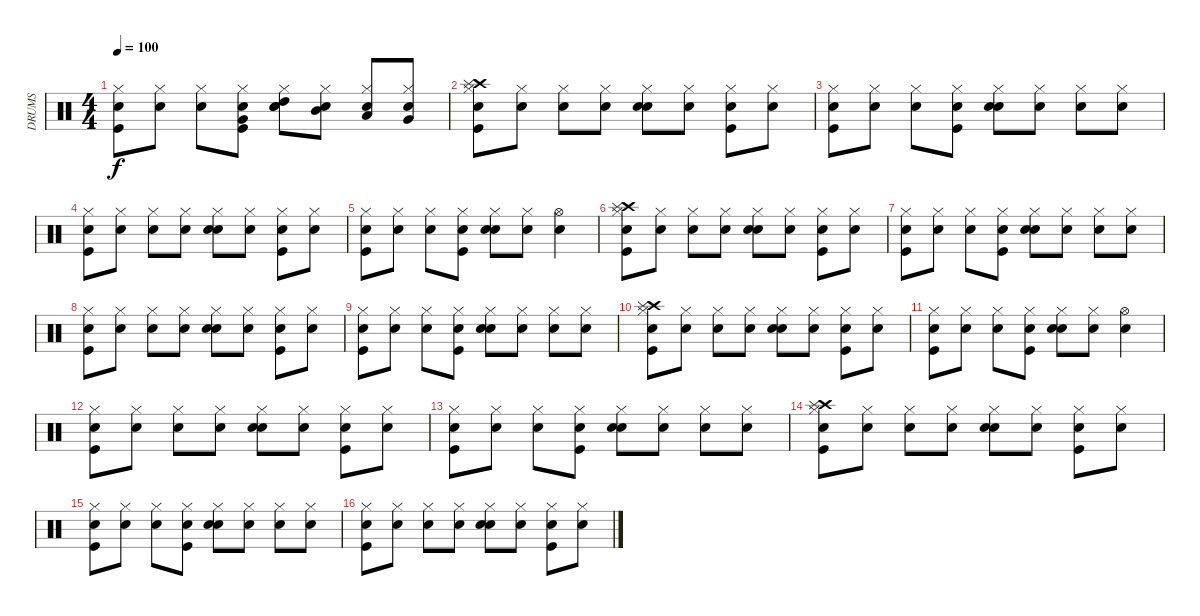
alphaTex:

\track ("DRUMS" "DRUMS") {instrument percussion}
\staff {score}
\articulation defaults
\ts (4 4)
\tempo 100
\clef neutral
\ks c
("Snare (hit)" "Kick (hit)" "Hi-Hat (closed)").8{dy f} ("Snare (hit)" "Hi-Hat (closed)").8 ("Snare (hit)" "Hi-Hat (closed)").8 ("Snare (hit)" "Very Low Tom (hit)" "Kick (hit)" "Hi-Hat (closed)").8 ("Snare (hit)" "High Tom (hit)" "Snare (hit) 2" "Hi-Hat (closed)").8 ("Snare (hit)" "Mid Tom (hit)" "Hi-Hat (closed)").8 ("Snare (hit)" "Low Tom (hit)" "Hi-Hat (closed)").8 ("Snare (hit)" "Very Low Tom (hit)" "Hi-Hat (closed)").8 |
("Snare (hit)" "Kick (hit)" "Crash high (hit)" "Splash (hit)" "Hi-Hat (closed)").8 ("Snare (hit)" "Hi-Hat (closed)").8 ("Snare (hit)" "Hi-Hat (closed)").8 ("Snare (hit)" "Hi-Hat (closed)").8 ("Snare (hit)" "Snare (hit) 2" "Hi-Hat (closed)").8 ("Snare (hit)" "Hi-Hat (closed)").8 ("Snare (hit)" "Kick (hit)" "Hi-Hat (closed)").8 ("Snare (hit)" "Hi-Hat (closed)").8 |
("Snare (hit)" "Kick (hit)" "Hi-Hat (closed)").8 ("Snare (hit)" "Hi-Hat (closed)").8 ("Snare (hit)" "Hi-Hat (closed)").8 ("Snare (hit)" "Kick (hit)" "Hi-Hat (closed)").8 ("Snare (hit)" "Snare (hit) 2" "Hi-Hat (closed)").8 ("Snare (hit)" "Hi-Hat (closed)").8 ("Snare (hit)" "Hi-Hat (closed)").8 ("Snare (hit)" "Hi-Hat (closed)").8 |
("Snare (hit)" "Kick (hit)" "Hi-Hat (closed)").8 ("Snare (hit)" "Hi-Hat (closed)").8 ("Snare (hit)" "Hi-Hat (closed)").8 ("Snare (hit)" "Hi-Hat (closed)").8 ("Snare (hit)" "Snare (hit) 2" "Hi-Hat (closed)").8 ("Snare (hit)" "Hi-Hat (closed)").8 ("Snare (hit)" "Kick (hit)" "Hi-Hat (closed)").8 ("Snare (hit)" "Hi-Hat (closed)").8 |
("Snare (hit)" "Kick (hit)" "Hi-Hat (closed)").8 ("Snare (hit)" "Hi-Hat (closed)").8 ("Snare (hit)" "Hi-Hat (closed)").8 ("Snare (hit)" "Kick (hit)" "Hi-Hat (closed)").8 ("Snare (hit)" "Snare (hit) 2" "Hi-Hat (closed)").8 ("Snare (hit)" "Hi-Hat (closed)").8 ("Snare (hit)" "Hi-Hat (open)").4 |
("Snare (hit)" "Kick (hit)" "Crash high (hit)" "Splash (hit)" "Hi-Hat (closed)").8 ("Snare (hit)" "Hi-Hat (closed)").8 ("Snare (hit)" "Hi-Hat (closed)").8 ("Snare (hit)" "Hi-Hat (closed)").8 ("Snare (hit)" "Snare (hit) 2" "Hi-Hat (closed)").8 ("Snare (hit)" "Hi-Hat (closed)").8 ("Snare (hit)" "Kick (hit)" "Hi-Hat (closed)").8 ("Snare (hit)" "Hi-Hat (closed)").8 |
("Snare (hit)" "Kick (hit)" "Hi-Hat (closed)").8 ("Snare (hit)" "Hi-Hat (closed)").8 ("Snare (hit)" "Hi-Hat (closed)").8 ("Snare (hit)" "Kick (hit)" "Hi-Hat (closed)").8 ("Snare (hit)" "Snare (hit) 2" "Hi-Hat (closed)").8 ("Snare (hit)" "Hi-Hat (closed)").8 ("Snare (hit)" "Hi-Hat (closed)").8 ("Snare (hit)" "Hi-Hat (closed)").8 |
("Snare (hit)" "Kick (hit)" "Hi-Hat (closed)").8 ("Snare (hit)" "Hi-Hat (closed)").8 ("Snare (hit)" "Hi-Hat (closed)").8 ("Snare (hit)" "Hi-Hat (closed)").8 ("Snare (hit)" "Snare (hit) 2" "Hi-Hat (closed)").8 ("Snare (hit)" "Hi-Hat (closed)").8 ("Snare (hit)" "Kick (hit)" "Hi-Hat (closed)").8 ("Snare (hit)" "Hi-Hat (closed)").8 |
("Snare (hit)" "Kick (hit)" "Hi-Hat (closed)").8 ("Snare (hit)" "Hi-Hat (closed)").8 ("Snare (hit)" "Hi-Hat (closed)").8 ("Snare (hit)" "Kick (hit)" "Hi-Hat (closed)").8 ("Snare (hit)" "Snare (hit) 2" "Hi-Hat (closed)").8 ("Snare (hit)" "Hi-Hat (closed)").8 ("Snare (hit)" "Hi-Hat (closed)").8 ("Snare (hit)" "Hi-Hat (closed)").8 |
("Snare (hit)" "Kick (hit)" "Crash high (hit)" "Splash (hit)" "Hi-Hat (closed)").8 ("Snare (hit)" "Hi-Hat (closed)").8 ("Snare (hit)" "Hi-Hat (closed)").8 ("Snare (hit)" "Hi-Hat (closed)").8 ("Snare (hit)" "Snare (hit) 2" "Hi-Hat (closed)").8 ("Snare (hit)" "Hi-Hat (closed)").8 ("Snare (hit)" "Kick (hit)" "Hi-Hat (closed)").8 ("Snare (hit)" "Hi-Hat (closed)").8 |
("Snare (hit)" "Kick (hit)" "Hi-Hat (closed)").8 ("Snare (hit)" "Hi-Hat (closed)").8 ("Snare (hit)" "Hi-Hat (closed)").8 ("Snare (hit)" "Kick (hit)" "Hi-Hat (closed)").8 ("Snare (hit)" "Snare (hit) 2" "Hi-Hat (closed)").8 ("Snare (hit)" "Hi-Hat (closed)").8 ("Snare (hit)" "Hi-Hat (open)").4 |
("Snare (hit)" "Kick (hit)" "Hi-Hat (closed)").8 ("Snare (hit)" "Hi-Hat (closed)").8 ("Snare (hit)" "Hi-Hat (closed)").8 ("Snare (hit)" "Hi-Hat (closed)").8 ("Snare (hit)" "Snare (hit) 2" "Hi-Hat (closed)").8 ("Snare (hit)" "Hi-Hat (closed)").8 ("Snare (hit)" "Kick (hit)" "Hi-Hat (closed)").8 ("Snare (hit)" "Hi-Hat (closed)").8 |
("Snare (hit)" "Kick (hit)" "Hi-Hat (closed)").8 ("Snare (hit)" "Hi-Hat (closed)").8 ("Snare (hit)" "Hi-Hat (closed)").8 ("Snare (hit)" "Kick (hit)" "Hi-Hat (closed)").8 ("Snare (hit)" "Snare (hit) 2" "Hi-Hat (closed)").8 ("Snare (hit)" "Hi-Hat (closed)").8 ("Snare (hit)" "Hi-Hat (closed)").8 ("Snare (hit)" "Hi-Hat (closed)").8 |
("Snare (hit)" "Kick (hit)" "Crash high (hit)" "Splash (hit)" "Hi-Hat (closed)").8 ("Snare (hit)" "Hi-Hat (closed)").8 ("Snare (hit)" "Hi-Hat (closed)").8 ("Snare (hit)" "Hi-Hat (closed)").8 ("Snare (hit)" "Snare (hit) 2" "Hi-Hat (closed)").8 ("Snare (hit)" "Hi-Hat (closed)").8 ("Snare (hit)" "Kick (hit)" "Hi-Hat (closed)").8 ("Snare (hit)" "Hi-Hat (closed)").8 |
("Snare (hit)" "Kick (hit)" "Hi-Hat (closed)").8 ("Snare (hit)" "Hi-Hat (closed)").8 ("Snare (hit)" "Hi-Hat (closed)").8 ("Snare (hit)" "Kick (hit)" "Hi-Hat (closed)").8 ("Snare (hit)" "Snare (hit) 2" "Hi-Hat (closed)").8 ("Snare (hit)" "Hi-Hat (closed)").8 ("Snare (hit)" "Hi-Hat (closed)").8 ("Snare (hit)" "Hi-Hat (closed)").8 |
("Snare (hit)" "Kick (hit)" "Hi-Hat (closed)").8 ("Snare (hit)" "Hi-Hat (closed)").8 ("Snare (hit)" "Hi-Hat (closed)").8 ("Snare (hit)" "Hi-Hat (closed)").8 ("Snare (hit)" "Snare (hit) 2" "Hi-Hat (closed)").8 ("Snare (hit)" "Hi-Hat (closed)").8 ("Snare (hit)" "Kick (hit)" "Hi-Hat (closed)").8 ("Snare (hit)" "Hi-Hat (closed)").8
